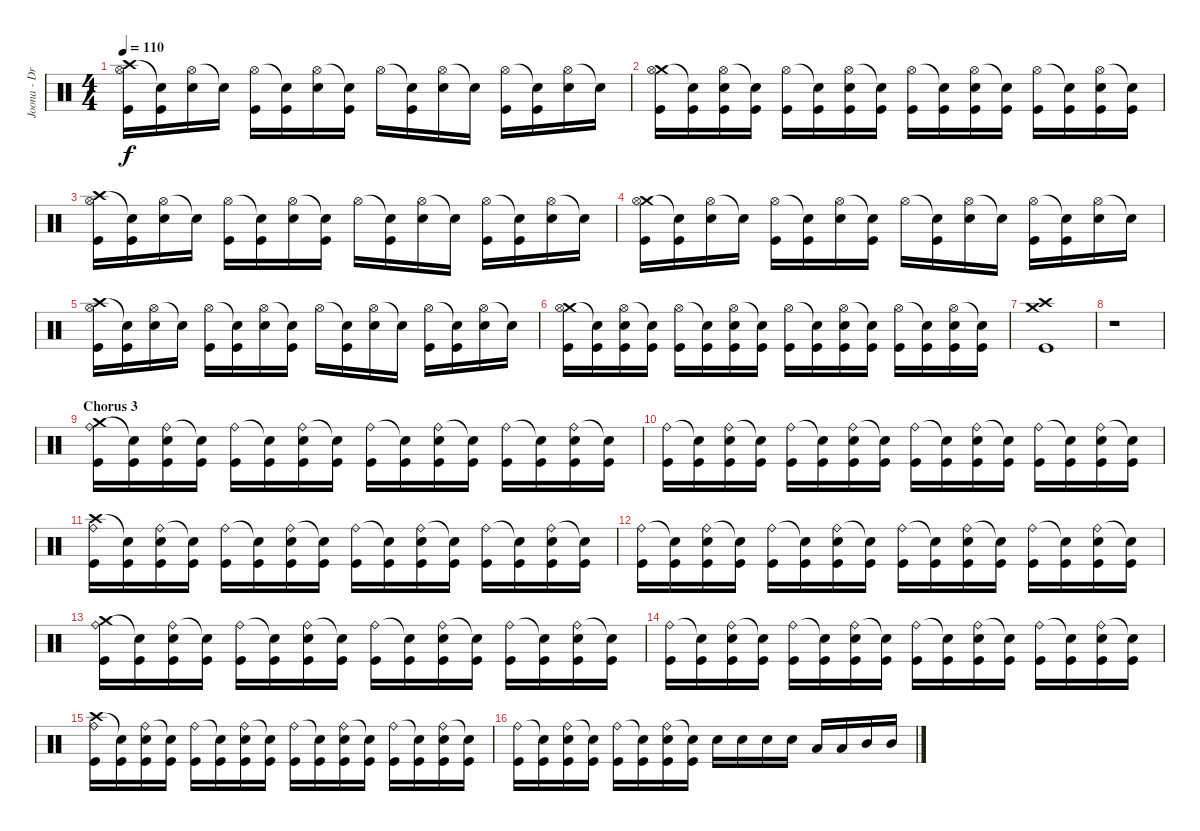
\track ("Joona - Drums" "Joona - Dr") {instrument percussion}
\staff {score}
\articulation defaults
\ts (4 4)
\tempo 110
\clef neutral
\ks c
("Crash high (hit)" "Hi-Hat (open)" "Kick (hit)").16{dy f} ("Snare (hit)"{t} "Kick (hit)").16 ("Hi-Hat (open)" "Snare (hit) 2").16 "Snare (hit)"{t}.16 ("Hi-Hat (open)" "Kick (hit)").16 ("Snare (hit)"{t} "Kick (hit)").16 ("Hi-Hat (open)" "Snare (hit) 2").16 ("Snare (hit)"{t} "Kick (hit)").16 "Hi-Hat (open)".16 ("Snare (hit)"{t} "Kick (hit)").16 ("Hi-Hat (open)" "Snare (hit) 2").16 "Snare (hit)"{t}.16 ("Hi-Hat (open)" "Kick (hit)").16 ("Snare (hit)"{t} "Kick (hit)").16 ("Hi-Hat (open)" "Snare (hit) 2").16 "Snare (hit)"{t}.16 |
("Crash medium (hit)" "Hi-Hat (open)" "Kick (hit)").16 ("Snare (hit)"{t} "Kick (hit)").16 ("Hi-Hat (open)" "Snare (hit) 2" "Kick (hit)").16 ("Snare (hit)"{t} "Kick (hit)").16 ("Hi-Hat (open)" "Kick (hit)").16 ("Snare (hit)"{t} "Kick (hit)").16 ("Hi-Hat (open)" "Snare (hit) 2" "Kick (hit)").16 ("Snare (hit)"{t} "Kick (hit)").16 ("Hi-Hat (open)" "Kick (hit)").16 ("Snare (hit)"{t} "Kick (hit)").16 ("Hi-Hat (open)" "Snare (hit) 2" "Kick (hit)").16 ("Snare (hit)"{t} "Kick (hit)").16 ("Hi-Hat (open)" "Kick (hit)").16 ("Snare (hit)"{t} "Kick (hit)").16 ("Hi-Hat (open)" "Snare (hit) 2" "Kick (hit)").16 ("Snare (hit)"{t} "Kick (hit)").16 |
("Crash high (hit)" "Hi-Hat (open)" "Kick (hit)").16 ("Snare (hit)"{t} "Kick (hit)").16 ("Hi-Hat (open)" "Snare (hit) 2").16 "Snare (hit)"{t}.16 ("Hi-Hat (open)" "Kick (hit)").16 ("Snare (hit)"{t} "Kick (hit)").16 ("Hi-Hat (open)" "Snare (hit) 2").16 ("Snare (hit)"{t} "Kick (hit)").16 "Hi-Hat (open)".16 ("Snare (hit)"{t} "Kick (hit)").16 ("Hi-Hat (open)" "Snare (hit) 2").16 "Snare (hit)"{t}.16 ("Hi-Hat (open)" "Kick (hit)").16 ("Snare (hit)"{t} "Kick (hit)").16 ("Hi-Hat (open)" "Snare (hit) 2").16 "Snare (hit)"{t}.16 |
("Crash medium (hit)" "Hi-Hat (open)" "Kick (hit)").16 ("Snare (hit)"{t} "Kick (hit)").16 ("Hi-Hat (open)" "Snare (hit) 2").16 "Snare (hit)"{t}.16 ("Hi-Hat (open)" "Kick (hit)").16 ("Snare (hit)"{t} "Kick (hit)").16 ("Hi-Hat (open)" "Snare (hit) 2").16 ("Snare (hit)"{t} "Kick (hit)").16 "Hi-Hat (open)".16 ("Snare (hit)"{t} "Kick (hit)").16 ("Hi-Hat (open)" "Snare (hit) 2").16 "Snare (hit)"{t}.16 ("Hi-Hat (open)" "Kick (hit)").16 ("Snare (hit)"{t} "Kick (hit)").16 ("Hi-Hat (open)" "Snare (hit) 2").16 "Snare (hit)"{t}.16 |
("Crash high (hit)" "Hi-Hat (open)" "Kick (hit)").16 ("Snare (hit)"{t} "Kick (hit)").16 ("Hi-Hat (open)" "Snare (hit) 2").16 "Snare (hit)"{t}.16 ("Hi-Hat (open)" "Kick (hit)").16 ("Snare (hit)"{t} "Kick (hit)").16 ("Hi-Hat (open)" "Snare (hit) 2").16 ("Snare (hit)"{t} "Kick (hit)").16 "Hi-Hat (open)".16 ("Snare (hit)"{t} "Kick (hit)").16 ("Hi-Hat (open)" "Snare (hit) 2").16 "Snare (hit)"{t}.16 ("Hi-Hat (open)" "Kick (hit)").16 ("Snare (hit)"{t} "Kick (hit)").16 ("Hi-Hat (open)" "Snare (hit) 2").16 "Snare (hit)"{t}.16 |
("Crash medium (hit)" "Hi-Hat (open)" "Kick (hit)").16 ("Snare (hit)"{t} "Kick (hit)").16 ("Hi-Hat (open)" "Snare (hit) 2" "Kick (hit)").16 ("Snare (hit)"{t} "Kick (hit)").16 ("Hi-Hat (open)" "Kick (hit)").16 ("Snare (hit)"{t} "Kick (hit)").16 ("Hi-Hat (open)" "Snare (hit) 2" "Kick (hit)").16 ("Snare (hit)"{t} "Kick (hit)").16 ("Hi-Hat (open)" "Kick (hit)").16 ("Snare (hit)"{t} "Kick (hit)").16 ("Hi-Hat (open)" "Snare (hit) 2" "Kick (hit)").16 ("Snare (hit)"{t} "Kick (hit)").16 ("Hi-Hat (open)" "Kick (hit)").16 ("Snare (hit)"{t} "Kick (hit)").16 ("Hi-Hat (open)" "Snare (hit) 2" "Kick (hit)").16 ("Snare (hit)"{t} "Kick (hit)").16 |
("Crash medium (hit)" "Crash high (hit)" "Kick (hit)").1 |
r.1 |
\section ("" "Chorus 3")
("Crash medium (hit)" "Ride (bell)" "Kick (hit)").16 ("Snare (hit)"{t} "Kick (hit)").16 ("Ride (bell)" "Snare (hit) 2" "Kick (hit)").16 ("Snare (hit)"{t} "Kick (hit)").16 ("Ride (bell)" "Kick (hit)").16 ("Snare (hit)"{t} "Kick (hit)").16 ("Ride (bell)" "Snare (hit) 2" "Kick (hit)").16 ("Snare (hit)"{t} "Kick (hit)").16 ("Ride (bell)" "Kick (hit)").16 ("Snare (hit)"{t} "Kick (hit)").16 ("Ride (bell)" "Snare (hit) 2" "Kick (hit)").16 ("Snare (hit)"{t} "Kick (hit)").16 ("Ride (bell)" "Kick (hit)").16 ("Snare (hit)"{t} "Kick (hit)").16 ("Ride (bell)" "Snare (hit) 2" "Kick (hit)").16 ("Snare (hit)"{t} "Kick (hit)").16 |
("Ride (bell)" "Kick (hit)").16 ("Snare (hit)"{t} "Kick (hit)").16 ("Ride (bell)" "Snare (hit) 2" "Kick (hit)").16 ("Snare (hit)"{t} "Kick (hit)").16 ("Ride (bell)" "Kick (hit)").16 ("Snare (hit)"{t} "Kick (hit)").16 ("Ride (bell)" "Snare (hit) 2" "Kick (hit)").16 ("Snare (hit)"{t} "Kick (hit)").16 ("Ride (bell)" "Kick (hit)").16 ("Snare (hit)"{t} "Kick (hit)").16 ("Ride (bell)" "Snare (hit) 2" "Kick (hit)").16 ("Snare (hit)"{t} "Kick (hit)").16 ("Ride (bell)" "Kick (hit)").16 ("Snare (hit)"{t} "Kick (hit)").16 ("Ride (bell)" "Snare (hit) 2" "Kick (hit)").16 ("Snare (hit)"{t} "Kick (hit)").16 |
("Crash high (hit)" "Ride (bell)" "Kick (hit)").16 ("Snare (hit)"{t} "Kick (hit)").16 ("Ride (bell)" "Snare (hit) 2" "Kick (hit)").16 ("Snare (hit)"{t} "Kick (hit)").16 ("Ride (bell)" "Kick (hit)").16 ("Snare (hit)"{t} "Kick (hit)").16 ("Ride (bell)" "Snare (hit) 2" "Kick (hit)").16 ("Snare (hit)"{t} "Kick (hit)").16 ("Ride (bell)" "Kick (hit)").16 ("Snare (hit)"{t} "Kick (hit)").16 ("Ride (bell)" "Snare (hit) 2" "Kick (hit)").16 ("Snare (hit)"{t} "Kick (hit)").16 ("Ride (bell)" "Kick (hit)").16 ("Snare (hit)"{t} "Kick (hit)").16 ("Ride (bell)" "Snare (hit) 2" "Kick (hit)").16 ("Snare (hit)"{t} "Kick (hit)").16 |
("Ride (bell)" "Kick (hit)").16 ("Snare (hit)"{t} "Kick (hit)").16 ("Ride (bell)" "Snare (hit) 2" "Kick (hit)").16 ("Snare (hit)"{t} "Kick (hit)").16 ("Ride (bell)" "Kick (hit)").16 ("Snare (hit)"{t} "Kick (hit)").16 ("Ride (bell)" "Snare (hit) 2" "Kick (hit)").16 ("Snare (hit)"{t} "Kick (hit)").16 ("Ride (bell)" "Kick (hit)").16 ("Snare (hit)"{t} "Kick (hit)").16 ("Ride (bell)" "Snare (hit) 2" "Kick (hit)").16 ("Snare (hit)"{t} "Kick (hit)").16 ("Ride (bell)" "Kick (hit)").16 ("Snare (hit)"{t} "Kick (hit)").16 ("Ride (bell)" "Snare (hit) 2" "Kick (hit)").16 ("Snare (hit)"{t} "Kick (hit)").16 |
("Crash medium (hit)" "Ride (bell)" "Kick (hit)").16 ("Snare (hit)"{t} "Kick (hit)").16 ("Ride (bell)" "Snare (hit) 2" "Kick (hit)").16 ("Snare (hit)"{t} "Kick (hit)").16 ("Ride (bell)" "Kick (hit)").16 ("Snare (hit)"{t} "Kick (hit)").16 ("Ride (bell)" "Snare (hit) 2" "Kick (hit)").16 ("Snare (hit)"{t} "Kick (hit)").16 ("Ride (bell)" "Kick (hit)").16 ("Snare (hit)"{t} "Kick (hit)").16 ("Ride (bell)" "Snare (hit) 2" "Kick (hit)").16 ("Snare (hit)"{t} "Kick (hit)").16 ("Ride (bell)" "Kick (hit)").16 ("Snare (hit)"{t} "Kick (hit)").16 ("Ride (bell)" "Snare (hit) 2" "Kick (hit)").16 ("Snare (hit)"{t} "Kick (hit)").16 |
("Ride (bell)" "Kick (hit)").16 ("Snare (hit)"{t} "Kick (hit)").16 ("Ride (bell)" "Snare (hit) 2" "Kick (hit)").16 ("Snare (hit)"{t} "Kick (hit)").16 ("Ride (bell)" "Kick (hit)").16 ("Snare (hit)"{t} "Kick (hit)").16 ("Ride (bell)" "Snare (hit) 2" "Kick (hit)").16 ("Snare (hit)"{t} "Kick (hit)").16 ("Ride (bell)" "Kick (hit)").16 ("Snare (hit)"{t} "Kick (hit)").16 ("Ride (bell)" "Snare (hit) 2" "Kick (hit)").16 ("Snare (hit)"{t} "Kick (hit)").16 ("Ride (bell)" "Kick (hit)").16 ("Snare (hit)"{t} "Kick (hit)").16 ("Ride (bell)" "Snare (hit) 2" "Kick (hit)").16 ("Snare (hit)"{t} "Kick (hit)").16 |
("Crash high (hit)" "Ride (bell)" "Kick (hit)").16 ("Snare (hit)"{t} "Kick (hit)").16 ("Ride (bell)" "Snare (hit) 2" "Kick (hit)").16 ("Snare (hit)"{t} "Kick (hit)").16 ("Ride (bell)" "Kick (hit)").16 ("Snare (hit)"{t} "Kick (hit)").16 ("Ride (bell)" "Snare (hit) 2" "Kick (hit)").16 ("Snare (hit)"{t} "Kick (hit)").16 ("Ride (bell)" "Kick (hit)").16 ("Snare (hit)"{t} "Kick (hit)").16 ("Ride (bell)" "Snare (hit) 2" "Kick (hit)").16 ("Snare (hit)"{t} "Kick (hit)").16 ("Ride (bell)" "Kick (hit)").16 ("Snare (hit)"{t} "Kick (hit)").16 ("Ride (bell)" "Snare (hit) 2" "Kick (hit)").16 ("Snare (hit)"{t} "Kick (hit)").16 |
("Ride (bell)" "Kick (hit)").16 ("Snare (hit)"{t} "Kick (hit)").16 ("Ride (bell)" "Snare (hit) 2" "Kick (hit)").16 ("Snare (hit)"{t} "Kick (hit)").16 ("Ride (bell)" "Kick (hit)").16 ("Snare (hit)"{t} "Kick (hit)").16 ("Ride (bell)" "Snare (hit) 2" "Kick (hit)").16 ("Snare (hit)"{t} "Kick (hit)").16 "Snare (hit) 2".16 "Snare (hit) 2".16 "Snare (hit) 2".16 "Snare (hit) 2".16 "Low Tom (hit)".16 "Low Tom (hit)".16 "Mid Tom (hit)".16 "Mid Tom (hit)".16
